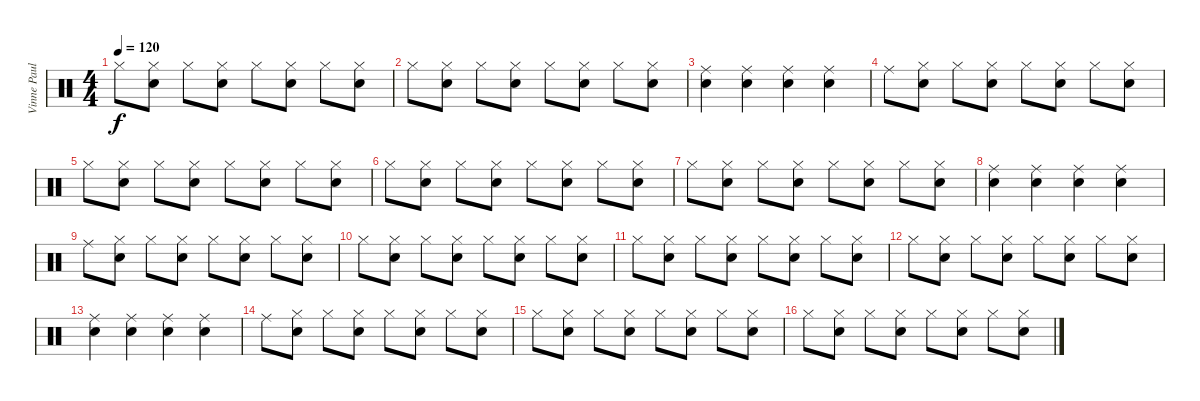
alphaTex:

\track ("Vinne Paul cymbals and tom" "Vinne Paul") {instrument percussion}
\staff {score}
\articulation defaults
\ts (4 4)
\tempo 120
\clef neutral
\ks c "Hi-Hat (closed)".8{dy f}
("Hi-Hat (closed)" "Electric Snare (hit)").8 "Hi-Hat (closed)".8 ("Hi-Hat (closed)" "Electric Snare (hit)").8 "Hi-Hat (closed)".8 ("Hi-Hat (closed)" "Electric Snare (hit)").8 "Hi-Hat (closed)".8 ("Hi-Hat (closed)" "Electric Snare (hit)").8 |
"Hi-Hat (closed)".8 ("Hi-Hat (closed)" "Electric Snare (hit)").8 "Hi-Hat (closed)".8 ("Hi-Hat (closed)" "Electric Snare (hit)").8 "Hi-Hat (closed)".8 ("Hi-Hat (closed)" "Electric Snare (hit)").8 "Hi-Hat (closed)".8 ("Hi-Hat (closed)" "Electric Snare (hit)").8 |
("Ride (middle)" "Electric Snare (hit)").4 ("Ride (middle)" "Electric Snare (hit)").4 ("Ride (middle)" "Electric Snare (hit)").4 ("Ride (middle)" "Electric Snare (hit)").4 |
"Ride (middle)".8 ("Hi-Hat (closed)" "Electric Snare (hit)").8 "Hi-Hat (closed)".8 ("Hi-Hat (closed)" "Electric Snare (hit)").8 "Hi-Hat (closed)".8 ("Hi-Hat (closed)" "Electric Snare (hit)").8 "Hi-Hat (closed)".8 ("Hi-Hat (closed)" "Electric Snare (hit)").8 |
"Hi-Hat (closed)".8 ("Hi-Hat (closed)" "Electric Snare (hit)").8 "Hi-Hat (closed)".8 ("Hi-Hat (closed)" "Electric Snare (hit)").8 "Hi-Hat (closed)".8 ("Hi-Hat (closed)" "Electric Snare (hit)").8 "Hi-Hat (closed)".8 ("Hi-Hat (closed)" "Electric Snare (hit)").8 |
"Hi-Hat (closed)".8 ("Hi-Hat (closed)" "Electric Snare (hit)").8 "Hi-Hat (closed)".8 ("Hi-Hat (closed)" "Electric Snare (hit)").8 "Hi-Hat (closed)".8 ("Hi-Hat (closed)" "Electric Snare (hit)").8 "Hi-Hat (closed)".8 ("Hi-Hat (closed)" "Electric Snare (hit)").8 |
"Hi-Hat (closed)".8 ("Hi-Hat (closed)" "Electric Snare (hit)").8 "Hi-Hat (closed)".8 ("Hi-Hat (closed)" "Electric Snare (hit)").8 "Hi-Hat (closed)".8 ("Hi-Hat (closed)" "Electric Snare (hit)").8 "Hi-Hat (closed)".8 ("Hi-Hat (closed)" "Electric Snare (hit)").8 |
("Ride (middle)" "Electric Snare (hit)").4 ("Ride (middle)" "Electric Snare (hit)").4 ("Ride (middle)" "Electric Snare (hit)").4 ("Ride (middle)" "Electric Snare (hit)").4 |
"Ride (middle)".8 ("Hi-Hat (closed)" "Electric Snare (hit)").8 "Hi-Hat (closed)".8 ("Hi-Hat (closed)" "Electric Snare (hit)").8 "Hi-Hat (closed)".8 ("Hi-Hat (closed)" "Electric Snare (hit)").8 "Hi-Hat (closed)".8 ("Hi-Hat (closed)" "Electric Snare (hit)").8 |
"Hi-Hat (closed)".8 ("Hi-Hat (closed)" "Electric Snare (hit)").8 "Hi-Hat (closed)".8 ("Hi-Hat (closed)" "Electric Snare (hit)").8 "Hi-Hat (closed)".8 ("Hi-Hat (closed)" "Electric Snare (hit)").8 "Hi-Hat (closed)".8 ("Hi-Hat (closed)" "Electric Snare (hit)").8 |
"Hi-Hat (closed)".8 ("Hi-Hat (closed)" "Electric Snare (hit)").8 "Hi-Hat (closed)".8 ("Hi-Hat (closed)" "Electric Snare (hit)").8 "Hi-Hat (closed)".8 ("Hi-Hat (closed)" "Electric Snare (hit)").8 "Hi-Hat (closed)".8 ("Hi-Hat (closed)" "Electric Snare (hit)").8 |
"Hi-Hat (closed)".8 ("Hi-Hat (closed)" "Electric Snare (hit)").8 "Hi-Hat (closed)".8 ("Hi-Hat (closed)" "Electric Snare (hit)").8 "Hi-Hat (closed)".8 ("Hi-Hat (closed)" "Electric Snare (hit)").8 "Hi-Hat (closed)".8 ("Hi-Hat (closed)" "Electric Snare (hit)").8 |
("Ride (middle)" "Electric Snare (hit)").4 ("Ride (middle)" "Electric Snare (hit)").4 ("Ride (middle)" "Electric Snare (hit)").4 ("Ride (middle)" "Electric Snare (hit)").4 |
"Ride (middle)".8 ("Hi-Hat (closed)" "Electric Snare (hit)").8 "Hi-Hat (closed)".8 ("Hi-Hat (closed)" "Electric Snare (hit)").8 "Hi-Hat (closed)".8 ("Hi-Hat (closed)" "Electric Snare (hit)").8 "Hi-Hat (closed)".8 ("Hi-Hat (closed)" "Electric Snare (hit)").8 |
"Hi-Hat (closed)".8 ("Hi-Hat (closed)" "Electric Snare (hit)").8 "Hi-Hat (closed)".8 ("Hi-Hat (closed)" "Electric Snare (hit)").8 "Hi-Hat (closed)".8 ("Hi-Hat (closed)" "Electric Snare (hit)").8 "Hi-Hat (closed)".8 ("Hi-Hat (closed)" "Electric Snare (hit)").8 |
"Hi-Hat (closed)".8 ("Hi-Hat (closed)" "Electric Snare (hit)").8 "Hi-Hat (closed)".8 ("Hi-Hat (closed)" "Electric Snare (hit)").8 "Hi-Hat (closed)".8 ("Hi-Hat (closed)" "Electric Snare (hit)").8 "Hi-Hat (closed)".8 ("Hi-Hat (closed)" "Electric Snare (hit)").8
